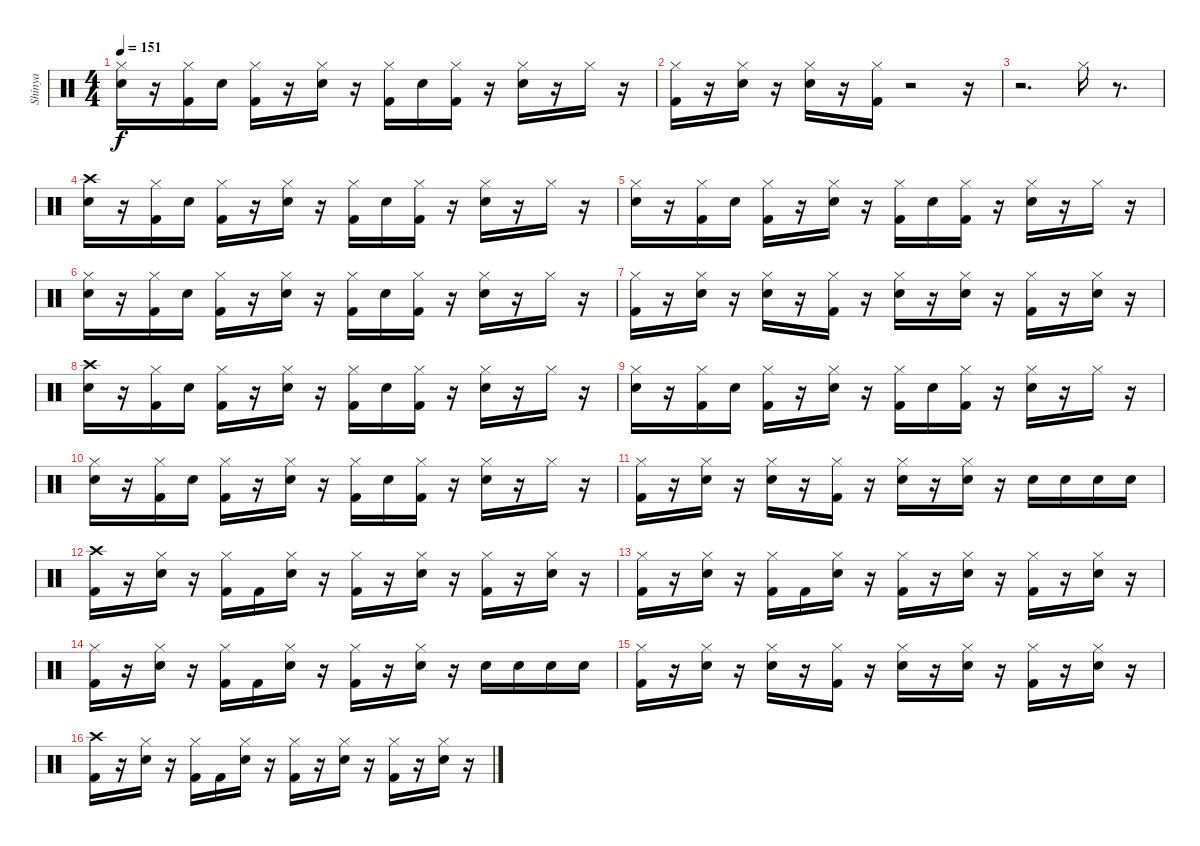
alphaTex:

\track ("Shinya" "Shinya") {instrument percussion}
\staff {score}
\articulation defaults
\ts (4 4)
\tempo 151
\clef neutral
\ks c
("Snare (hit) 2" "Hi-Hat (closed)").16{dy f} r.16 ("Hi-Hat (closed)" "Kick (hit) 2").16 "Snare (hit) 2".16 ("Kick (hit) 2" "Hi-Hat (closed)").16 r.16 ("Snare (hit) 2" "Hi-Hat (closed)").16 r.16 ("Hi-Hat (closed)" "Kick (hit) 2").16 "Snare (hit) 2".16 ("Kick (hit) 2" "Hi-Hat (closed)").16 r.16 ("Snare (hit) 2" "Hi-Hat (closed)").16 r.16 "Hi-Hat (closed)".16 r.16 |
("Kick (hit) 2" "Hi-Hat (closed)").16 r.16 ("Snare (hit) 2" "Hi-Hat (closed)").16 r.16 ("Snare (hit) 2" "Hi-Hat (closed)").16 r.16 ("Kick (hit) 2" "Hi-Hat (closed)").16 r.2 r.16 |
r.2{d} "Hi-Hat (closed)".16 r.8{d} |
("Snare (hit) 2" "Crash high (hit)").16 r.16 ("Hi-Hat (closed)" "Kick (hit) 2").16 "Snare (hit) 2".16 ("Kick (hit) 2" "Hi-Hat (closed)").16 r.16 ("Snare (hit) 2" "Hi-Hat (closed)").16 r.16 ("Hi-Hat (closed)" "Kick (hit) 2").16 "Snare (hit) 2".16 ("Kick (hit) 2" "Hi-Hat (closed)").16 r.16 ("Snare (hit) 2" "Hi-Hat (closed)").16 r.16 "Hi-Hat (closed)".16 r.16 |
("Snare (hit) 2" "Hi-Hat (closed)").16 r.16 ("Hi-Hat (closed)" "Kick (hit) 2").16 "Snare (hit) 2".16 ("Kick (hit) 2" "Hi-Hat (closed)").16 r.16 ("Snare (hit) 2" "Hi-Hat (closed)").16 r.16 ("Hi-Hat (closed)" "Kick (hit) 2").16 "Snare (hit) 2".16 ("Kick (hit) 2" "Hi-Hat (closed)").16 r.16 ("Snare (hit) 2" "Hi-Hat (closed)").16 r.16 "Hi-Hat (closed)".16 r.16 |
("Snare (hit) 2" "Hi-Hat (closed)").16 r.16 ("Hi-Hat (closed)" "Kick (hit) 2").16 "Snare (hit) 2".16 ("Kick (hit) 2" "Hi-Hat (closed)").16 r.16 ("Snare (hit) 2" "Hi-Hat (closed)").16 r.16 ("Hi-Hat (closed)" "Kick (hit) 2").16 "Snare (hit) 2".16 ("Kick (hit) 2" "Hi-Hat (closed)").16 r.16 ("Snare (hit) 2" "Hi-Hat (closed)").16 r.16 "Hi-Hat (closed)".16 r.16 |
("Kick (hit) 2" "Hi-Hat (closed)").16 r.16 ("Snare (hit) 2" "Hi-Hat (closed)").16 r.16 ("Snare (hit) 2" "Hi-Hat (closed)").16 r.16 ("Kick (hit) 2" "Hi-Hat (closed)").16 r.16 ("Snare (hit) 2" "Hi-Hat (closed)").16 r.16 ("Snare (hit) 2" "Hi-Hat (closed)").16 r.16 ("Kick (hit) 2" "Hi-Hat (closed)").16 r.16 ("Snare (hit) 2" "Hi-Hat (closed)").16 r.16 |
("Snare (hit) 2" "Crash high (hit)").16 r.16 ("Hi-Hat (closed)" "Kick (hit) 2").16 "Snare (hit) 2".16 ("Kick (hit) 2" "Hi-Hat (closed)").16 r.16 ("Snare (hit) 2" "Hi-Hat (closed)").16 r.16 ("Hi-Hat (closed)" "Kick (hit) 2").16 "Snare (hit) 2".16 ("Kick (hit) 2" "Hi-Hat (closed)").16 r.16 ("Snare (hit) 2" "Hi-Hat (closed)").16 r.16 "Hi-Hat (closed)".16 r.16 |
("Snare (hit) 2" "Hi-Hat (closed)").16 r.16 ("Hi-Hat (closed)" "Kick (hit) 2").16 "Snare (hit) 2".16 ("Kick (hit) 2" "Hi-Hat (closed)").16 r.16 ("Snare (hit) 2" "Hi-Hat (closed)").16 r.16 ("Hi-Hat (closed)" "Kick (hit) 2").16 "Snare (hit) 2".16 ("Kick (hit) 2" "Hi-Hat (closed)").16 r.16 ("Snare (hit) 2" "Hi-Hat (closed)").16 r.16 "Hi-Hat (closed)".16 r.16 |
("Snare (hit) 2" "Hi-Hat (closed)").16 r.16 ("Hi-Hat (closed)" "Kick (hit) 2").16 "Snare (hit) 2".16 ("Kick (hit) 2" "Hi-Hat (closed)").16 r.16 ("Snare (hit) 2" "Hi-Hat (closed)").16 r.16 ("Hi-Hat (closed)" "Kick (hit) 2").16 "Snare (hit) 2".16 ("Kick (hit) 2" "Hi-Hat (closed)").16 r.16 ("Snare (hit) 2" "Hi-Hat (closed)").16 r.16 "Hi-Hat (closed)".16 r.16 |
("Kick (hit) 2" "Hi-Hat (closed)").16 r.16 ("Snare (hit) 2" "Hi-Hat (closed)").16 r.16 ("Snare (hit) 2" "Hi-Hat (closed)").16 r.16 ("Kick (hit) 2" "Hi-Hat (closed)").16 r.16 ("Snare (hit) 2" "Hi-Hat (closed)").16 r.16 ("Snare (hit) 2" "Hi-Hat (closed)").16 r.16 "Snare (hit) 2".16 "Snare (hit) 2".16 "Snare (hit) 2".16 "Snare (hit) 2".16 |
("Kick (hit) 2" "Crash high (hit)").16 r.16 ("Snare (hit) 2" "Hi-Hat (closed)").16 r.16 ("Kick (hit) 2" "Hi-Hat (closed)").16 "Kick (hit) 2".16 ("Snare (hit) 2" "Hi-Hat (closed)").16 r.16 ("Kick (hit) 2" "Hi-Hat (closed)").16 r.16 ("Snare (hit) 2" "Hi-Hat (closed)").16 r.16 ("Kick (hit) 2" "Hi-Hat (closed)").16 r.16 ("Snare (hit) 2" "Hi-Hat (closed)").16 r.16 |
("Hi-Hat (closed)" "Kick (hit) 2").16 r.16 ("Snare (hit) 2" "Hi-Hat (closed)").16 r.16 ("Hi-Hat (closed)" "Kick (hit) 2").16 "Kick (hit) 2".16 ("Snare (hit) 2" "Hi-Hat (closed)").16 r.16 ("Hi-Hat (closed)" "Kick (hit) 2").16 r.16 ("Snare (hit) 2" "Hi-Hat (closed)").16 r.16 ("Hi-Hat (closed)" "Kick (hit) 2").16 r.16 ("Snare (hit) 2" "Hi-Hat (closed)").16 r.16 |
("Kick (hit) 2" "Hi-Hat (closed)").16 r.16 ("Snare (hit) 2" "Hi-Hat (closed)").16 r.16 ("Kick (hit) 2" "Hi-Hat (closed)").16 "Kick (hit) 2".16 ("Snare (hit) 2" "Hi-Hat (closed)").16 r.16 ("Kick (hit) 2" "Hi-Hat (closed)").16 r.16 ("Snare (hit) 2" "Hi-Hat (closed)").16 r.16 "Snare (hit) 2".16 "Snare (hit) 2".16 "Snare (hit) 2".16 "Snare (hit) 2".16 |
("Kick (hit) 2" "Hi-Hat (closed)").16 r.16 ("Snare (hit) 2" "Hi-Hat (closed)").16 r.16 ("Snare (hit) 2" "Hi-Hat (closed)").16 r.16 ("Kick (hit) 2" "Hi-Hat (closed)").16 r.16 ("Snare (hit) 2" "Hi-Hat (closed)").16 r.16 ("Snare (hit) 2" "Hi-Hat (closed)").16 r.16 ("Kick (hit) 2" "Hi-Hat (closed)").16 r.16 ("Snare (hit) 2" "Hi-Hat (closed)").16 r.16 |
("Kick (hit) 2" "Crash high (hit)").16 r.16 ("Snare (hit) 2" "Hi-Hat (closed)").16 r.16 ("Kick (hit) 2" "Hi-Hat (closed)").16 "Kick (hit) 2".16 ("Snare (hit) 2" "Hi-Hat (closed)").16 r.16 ("Kick (hit) 2" "Hi-Hat (closed)").16 r.16 ("Snare (hit) 2" "Hi-Hat (closed)").16 r.16 ("Kick (hit) 2" "Hi-Hat (closed)").16 r.16 ("Snare (hit) 2" "Hi-Hat (closed)").16 r.16
